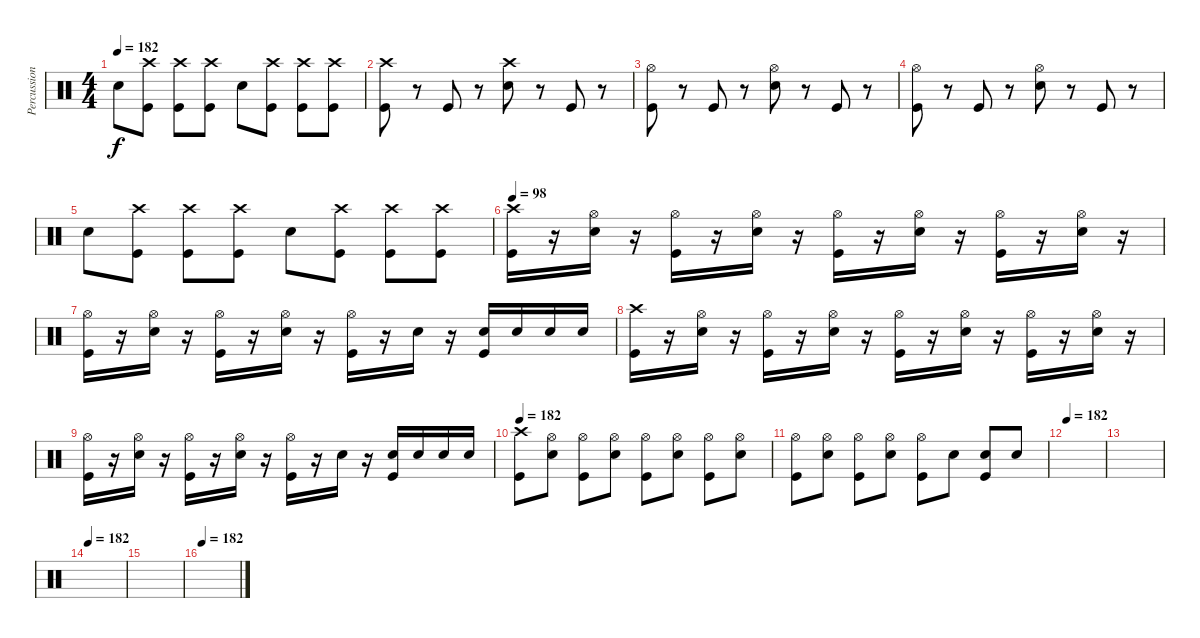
\track ("Percussion" "Percussion") {instrument percussion}
\staff {score}
\articulation defaults
\ts (4 4)
\tempo 182
\clef neutral
\ks c "Snare (hit) 2".8{dy f}
("Crash high (hit)" "Kick (hit)").8 ("Crash high (hit)" "Kick (hit)").8 ("Crash high (hit)" "Kick (hit)").8 "Snare (hit) 2".8 ("Crash high (hit)" "Kick (hit)").8 ("Crash high (hit)" "Kick (hit)").8 ("Crash high (hit)" "Kick (hit)").8 |
("Crash high (hit)" "Kick (hit)").8 r.8 "Kick (hit)".8 r.8 ("Crash high (hit)" "Snare (hit) 2").8 r.8 "Kick (hit)".8 r.8 |
("Hi-Hat (open)" "Kick (hit)").8 r.8 "Kick (hit)".8 r.8 ("Hi-Hat (open)" "Snare (hit) 2").8 r.8 "Kick (hit)".8 r.8 |
("Hi-Hat (open)" "Kick (hit)").8 r.8 "Kick (hit)".8 r.8 ("Hi-Hat (open)" "Snare (hit) 2").8 r.8 "Kick (hit)".8 r.8 |
"Snare (hit) 2".8 ("Crash high (hit)" "Kick (hit)").8 ("Crash high (hit)" "Kick (hit)").8 ("Crash high (hit)" "Kick (hit)").8 "Snare (hit) 2".8 ("Crash high (hit)" "Kick (hit)").8 ("Crash high (hit)" "Kick (hit)").8 ("Crash high (hit)" "Kick (hit)").8 |
\tempo 98
("Crash high (hit)" "Kick (hit)").16 r.16 ("Hi-Hat (open)" "Snare (hit) 2").16 r.16 ("Hi-Hat (open)" "Kick (hit)").16 r.16 ("Hi-Hat (open)" "Snare (hit) 2").16 r.16 ("Hi-Hat (open)" "Kick (hit)").16 r.16 ("Hi-Hat (open)" "Snare (hit) 2").16 r.16 ("Hi-Hat (open)" "Kick (hit)").16 r.16 ("Hi-Hat (open)" "Snare (hit) 2").16 r.16 |
("Hi-Hat (open)" "Kick (hit)").16 r.16 ("Hi-Hat (open)" "Snare (hit) 2").16 r.16 ("Hi-Hat (open)" "Kick (hit)").16 r.16 ("Hi-Hat (open)" "Snare (hit) 2").16 r.16 ("Hi-Hat (open)" "Kick (hit)").16 r.16 "Snare (hit) 2".16 r.16 ("Snare (hit) 2" "Kick (hit)").16 "Snare (hit) 2".16 "Snare (hit) 2".16 "Snare (hit) 2".16 |
("Crash high (hit)" "Kick (hit)").16 r.16 ("Hi-Hat (open)" "Snare (hit) 2").16 r.16 ("Hi-Hat (open)" "Kick (hit)").16 r.16 ("Hi-Hat (open)" "Snare (hit) 2").16 r.16 ("Hi-Hat (open)" "Kick (hit)").16 r.16 ("Hi-Hat (open)" "Snare (hit) 2").16 r.16 ("Hi-Hat (open)" "Kick (hit)").16 r.16 ("Hi-Hat (open)" "Snare (hit) 2").16 r.16 |
("Hi-Hat (open)" "Kick (hit)").16 r.16 ("Hi-Hat (open)" "Snare (hit) 2").16 r.16 ("Hi-Hat (open)" "Kick (hit)").16 r.16 ("Hi-Hat (open)" "Snare (hit) 2").16 r.16 ("Hi-Hat (open)" "Kick (hit)").16 r.16 "Snare (hit) 2".16 r.16 ("Snare (hit) 2" "Kick (hit)").16 "Snare (hit) 2".16 "Snare (hit) 2".16 "Snare (hit) 2".16 |
\tempo 182
("Crash high (hit)" "Kick (hit)").8 ("Hi-Hat (open)" "Snare (hit) 2").8 ("Hi-Hat (open)" "Kick (hit)").8 ("Hi-Hat (open)" "Snare (hit) 2").8 ("Hi-Hat (open)" "Kick (hit)").8 ("Hi-Hat (open)" "Snare (hit) 2").8 ("Hi-Hat (open)" "Kick (hit)").8 ("Hi-Hat (open)" "Snare (hit) 2").8 |
("Hi-Hat (open)" "Kick (hit)").8 ("Hi-Hat (open)" "Snare (hit) 2").8 ("Hi-Hat (open)" "Kick (hit)").8 ("Hi-Hat (open)" "Snare (hit) 2").8 ("Hi-Hat (open)" "Kick (hit)").8 "Snare (hit) 2".8 ("Snare (hit) 2" "Kick (hit)").8 "Snare (hit) 2".8 |
\tempo 182
|
|
\tempo 182
|
|
\tempo 182
